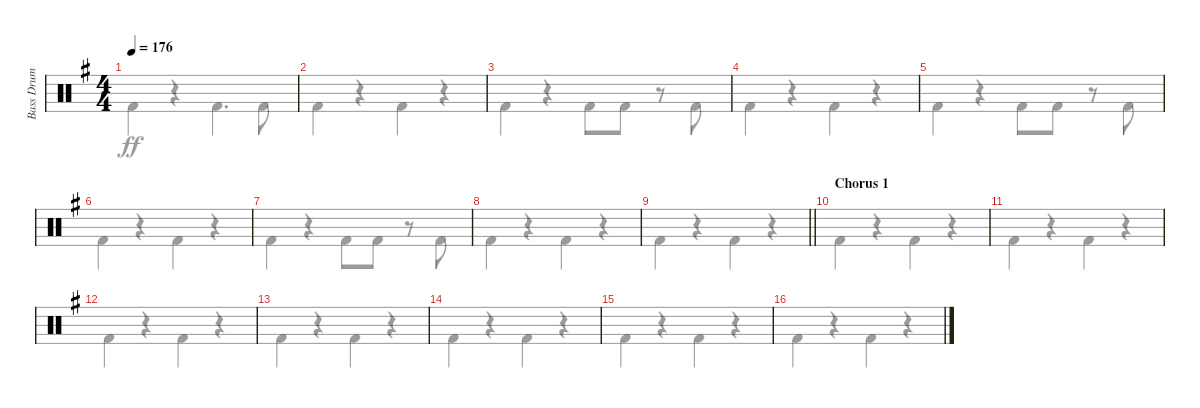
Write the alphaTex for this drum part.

\track ("Bass Drum" "Bass Drum") {instrument percussion}
\staff {score}
\articulation defaults
\voice
\ts (4 4)
\tempo 176
\clef neutral
\ks eminor
|
|
|
|
|
|
|
|
\barLineRight lightlight
|
\section ("" "Chorus 1")
|
|
|
|
|
|
\voice
\clef neutral
\ks eminor "Kick (hit) 2".4{dy ff}
r.4 "Kick (hit) 2".4{d} "Kick (hit) 2".8 |
"Kick (hit) 2".4 r.4 "Kick (hit) 2".4 r.4 |
"Kick (hit) 2".4 r.4 "Kick (hit) 2".8 "Kick (hit) 2".8 r.8 "Kick (hit) 2".8 |
"Kick (hit) 2".4 r.4 "Kick (hit) 2".4 r.4 |
"Kick (hit) 2".4 r.4 "Kick (hit) 2".8 "Kick (hit) 2".8 r.8 "Kick (hit) 2".8 |
"Kick (hit) 2".4 r.4 "Kick (hit) 2".4 r.4 |
"Kick (hit) 2".4 r.4 "Kick (hit) 2".8 "Kick (hit) 2".8 r.8 "Kick (hit) 2".8 |
"Kick (hit) 2".4 r.4 "Kick (hit) 2".4 r.4 |
\barLineRight lightlight "Kick (hit) 2".4
r.4 "Kick (hit) 2".4 r.4 |
"Kick (hit) 2".4 r.4 "Kick (hit) 2".4 r.4 |
"Kick (hit) 2".4 r.4 "Kick (hit) 2".4 r.4 |
"Kick (hit) 2".4 r.4 "Kick (hit) 2".4 r.4 |
"Kick (hit) 2".4 r.4 "Kick (hit) 2".4 r.4 |
"Kick (hit) 2".4 r.4 "Kick (hit) 2".4 r.4 |
"Kick (hit) 2".4 r.4 "Kick (hit) 2".4 r.4 |
"Kick (hit) 2".4 r.4 "Kick (hit) 2".4 r.4
